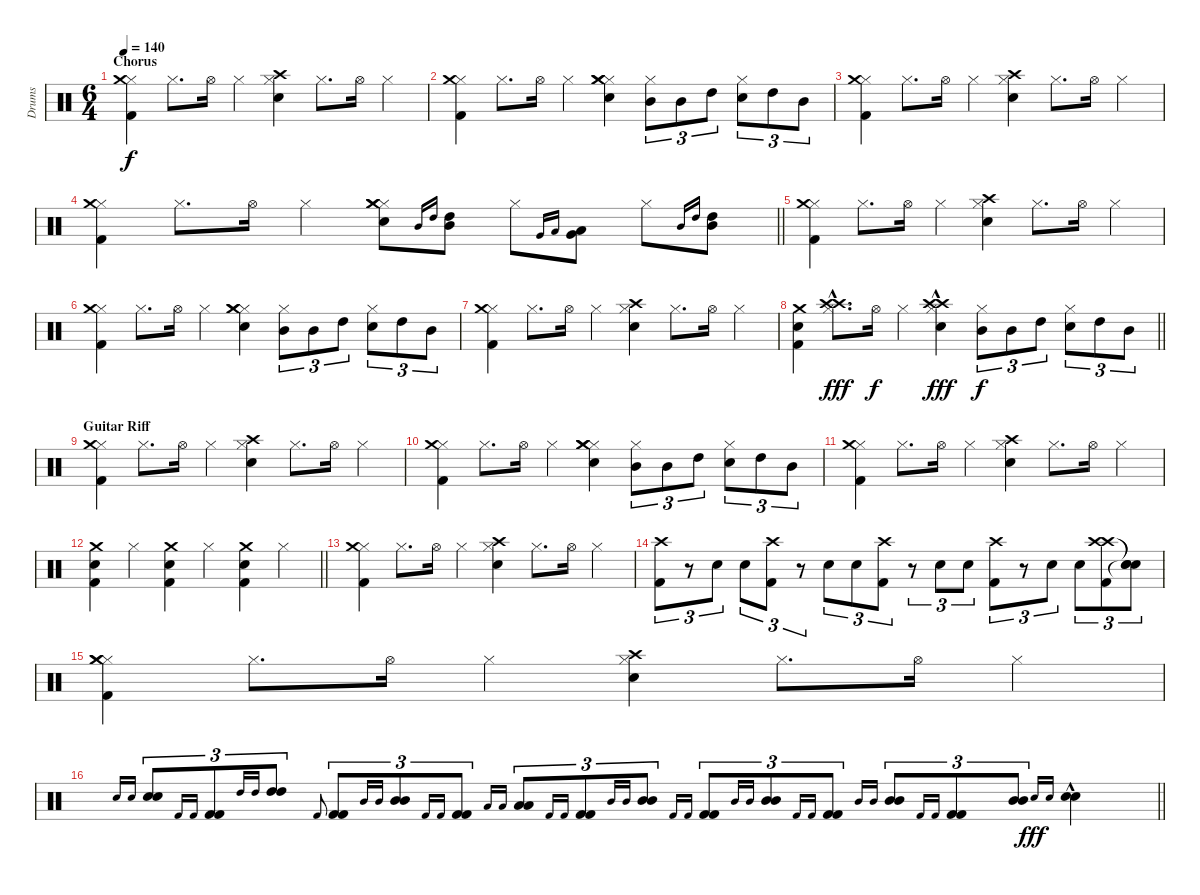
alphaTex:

\track ("Drums" "Drums") {instrument percussion}
\staff {score}
\articulation defaults
\ts (6 4)
\section ("" "Chorus")
\tempo 140
\clef neutral
\ks c
("Hi-Hat (closed)" "Crash medium (hit)" "Kick (hit) 2").4{dy f} "Hi-Hat (closed)".8{d} "Hi-Hat (open)".16 "Hi-Hat (closed)".4 ("Hi-Hat (closed)" "Crash high (hit)" "Electric Snare (hit)").4 "Hi-Hat (closed)".8{d} "Hi-Hat (open)".16 "Hi-Hat (closed)".4 |
("Hi-Hat (closed)" "Crash medium (hit)" "Kick (hit) 2").4 "Hi-Hat (closed)".8{d} "Hi-Hat (open)".16 "Hi-Hat (closed)".4 ("Hi-Hat (closed)" "Crash medium (hit)" "Crash medium (hit)" "Electric Snare (hit)").4 ("Hi-Hat (closed)" "Mid Tom (hit)").8{tu (3 2)} "Mid Tom (hit)".8{tu (3 2)} "High Tom (hit)".8{tu (3 2)} ("Hi-Hat (closed)" "Electric Snare (hit)").8{tu (3 2)} "High Tom (hit)".8{tu (3 2)} "Mid Tom (hit)".8{tu (3 2)} |
("Hi-Hat (closed)" "Crash medium (hit)" "Kick (hit) 2").4 "Hi-Hat (closed)".8{d} "Hi-Hat (open)".16 "Hi-Hat (closed)".4 ("Hi-Hat (closed)" "Crash high (hit)" "Electric Snare (hit)").4 "Hi-Hat (closed)".8{d} "Hi-Hat (open)".16 "Hi-Hat (closed)".4 |
\barLineRight lightlight
("Hi-Hat (closed)" "Crash medium (hit)" "Kick (hit) 2").4 "Hi-Hat (closed)".8{d} "Hi-Hat (open)".16 "Hi-Hat (closed)".4 ("Hi-Hat (closed)" "Crash medium (hit)" "Crash medium (hit)" "Electric Snare (hit)").8 "Mid Tom (hit)".16{gr onbeat} "High Tom (hit)".16{gr onbeat} ("Mid Tom (hit)" "High Tom (hit)").8 "Hi-Hat (closed)".8 "Very Low Tom (hit)".16{gr onbeat} "Low Tom (hit)".16{gr onbeat} ("Very Low Tom (hit)" "Low Tom (hit)").8 "Hi-Hat (closed)".8 "Mid Tom (hit)".16{gr onbeat} "High Tom (hit)".16{gr onbeat} ("Mid Tom (hit)" "High Tom (hit)").8 |
("Hi-Hat (closed)" "Crash medium (hit)" "Kick (hit) 2").4 "Hi-Hat (closed)".8{d} "Hi-Hat (open)".16 "Hi-Hat (closed)".4 ("Hi-Hat (closed)" "Crash high (hit)" "Electric Snare (hit)").4 "Hi-Hat (closed)".8{d} "Hi-Hat (open)".16 "Hi-Hat (closed)".4 |
("Hi-Hat (closed)" "Crash medium (hit)" "Kick (hit) 2").4 "Hi-Hat (closed)".8{d} "Hi-Hat (open)".16 "Hi-Hat (closed)".4 ("Hi-Hat (closed)" "Crash medium (hit)" "Crash medium (hit)" "Electric Snare (hit)").4 ("Hi-Hat (closed)" "Mid Tom (hit)").8{tu (3 2)} "Mid Tom (hit)".8{tu (3 2)} "High Tom (hit)".8{tu (3 2)} ("Hi-Hat (closed)" "Electric Snare (hit)").8{tu (3 2)} "High Tom (hit)".8{tu (3 2)} "Mid Tom (hit)".8{tu (3 2)} |
("Hi-Hat (closed)" "Crash medium (hit)" "Kick (hit) 2").4 "Hi-Hat (closed)".8{d} "Hi-Hat (open)".16 "Hi-Hat (closed)".4 ("Hi-Hat (closed)" "Crash high (hit)" "Electric Snare (hit)").4 "Hi-Hat (closed)".8{d} "Hi-Hat (open)".16 "Hi-Hat (closed)".4 |
\barLineRight lightlight
("Crash medium (hit)" "Electric Snare (hit)" "Kick (hit) 2").4 ("Hi-Hat (closed)" "Crash high (hit)" "Crash high (hit)"{hac}).8{d dy fff} "Hi-Hat (open)".16{dy f} "Hi-Hat (closed)".4 ("Hi-Hat (closed)" "Crash high (hit)"{hac} "Crash high (hit)"{hac} "Electric Snare (hit)").4{dy fff} ("Hi-Hat (closed)" "Mid Tom (hit)").8{tu (3 2) dy f} "Mid Tom (hit)".8{tu (3 2)} "High Tom (hit)".8{tu (3 2)} ("Hi-Hat (closed)" "Electric Snare (hit)").8{tu (3 2)} "High Tom (hit)".8{tu (3 2)} "Mid Tom (hit)".8{tu (3 2)} |
\section ("" "Guitar Riff")
("Hi-Hat (closed)" "Crash medium (hit)" "Kick (hit) 2").4 "Hi-Hat (closed)".8{d} "Hi-Hat (open)".16 "Hi-Hat (closed)".4 ("Hi-Hat (closed)" "Crash high (hit)" "Electric Snare (hit)").4 "Hi-Hat (closed)".8{d} "Hi-Hat (open)".16 "Hi-Hat (closed)".4 |
("Hi-Hat (closed)" "Crash medium (hit)" "Kick (hit) 2").4 "Hi-Hat (closed)".8{d} "Hi-Hat (open)".16 "Hi-Hat (closed)".4 ("Hi-Hat (closed)" "Crash medium (hit)" "Crash medium (hit)" "Electric Snare (hit)").4 ("Hi-Hat (closed)" "Mid Tom (hit)").8{tu (3 2)} "Mid Tom (hit)".8{tu (3 2)} "High Tom (hit)".8{tu (3 2)} ("Hi-Hat (closed)" "Electric Snare (hit)").8{tu (3 2)} "High Tom (hit)".8{tu (3 2)} "Mid Tom (hit)".8{tu (3 2)} |
("Hi-Hat (closed)" "Crash medium (hit)" "Kick (hit) 2").4 "Hi-Hat (closed)".8{d} "Hi-Hat (open)".16 "Hi-Hat (closed)".4 ("Hi-Hat (closed)" "Crash high (hit)" "Electric Snare (hit)").4 "Hi-Hat (closed)".8{d} "Hi-Hat (open)".16 "Hi-Hat (closed)".4 |
\barLineRight lightlight
("Crash medium (hit)" "Electric Snare (hit)" "Kick (hit) 2").4 "Hi-Hat (closed)".4 ("Crash medium (hit)" "Electric Snare (hit)" "Kick (hit) 2").4 "Hi-Hat (closed)".4 ("Crash medium (hit)" "Electric Snare (hit)" "Kick (hit) 2").4 "Hi-Hat (closed)".4 |
("Hi-Hat (closed)" "Crash medium (hit)" "Kick (hit) 2").4 "Hi-Hat (closed)".8{d} "Hi-Hat (open)".16 "Hi-Hat (closed)".4 ("Hi-Hat (closed)" "Crash high (hit)" "Electric Snare (hit)").4 "Hi-Hat (closed)".8{d} "Hi-Hat (open)".16 "Hi-Hat (closed)".4 |
("Crash high (hit)" "Kick (hit) 2").8{tu (3 2)} r.8{tu (3 2)} "Electric Snare (hit)".8{tu (3 2)} "Electric Snare (hit)".8{tu (3 2)} ("Crash high (hit)" "Kick (hit) 2").8{tu (3 2)} r.8{tu (3 2)} "Electric Snare (hit)".8{tu (3 2)} "Electric Snare (hit)".8{tu (3 2)} ("Crash high (hit)" "Kick (hit) 2").8{tu (3 2)} r.8{tu (3 2)} "Electric Snare (hit)".8{tu (3 2)} "Electric Snare (hit)".8{tu (3 2)} ("Crash high (hit)" "Kick (hit) 2").8{tu (3 2)} r.8{tu (3 2)} "Electric Snare (hit)".8{tu (3 2)} "Electric Snare (hit)".8{tu (3 2)} ("Crash high (hit)" "Crash high (hit)" "Kick (hit) 2").8{tu (3 2)} ("Snare (hit)"{t} "Snare (hit)"{t} "Snare (hit)"{t}).8{tu (3 2)} |
("Hi-Hat (closed)" "Crash medium (hit)" "Crash medium (hit)" "Kick (hit) 2").4 "Hi-Hat (closed)".8{d} "Hi-Hat (open)".16 "Hi-Hat (closed)".4 ("Hi-Hat (closed)" "Crash high (hit)" "Electric Snare (hit)").4 "Hi-Hat (closed)".8{d} "Hi-Hat (open)".16 "Hi-Hat (closed)".4 |
\barLineRight lightlight "Electric Snare (hit)".16{gr onbeat} "Electric Snare (hit)".16{gr onbeat}
("Electric Snare (hit)" "Electric Snare (hit)").8{tu (3 2)} "Kick (hit) 2".16{gr onbeat} "Kick (hit) 2".16{gr onbeat} ("Kick (hit) 2" "Kick (hit) 2").8{tu (3 2)} "High Tom (hit)".16{gr onbeat} "High Tom (hit)".16{gr onbeat} ("High Tom (hit)" "High Tom (hit)").8{tu (3 2)} "Kick (hit) 2".8{gr onbeat} ("Kick (hit) 2" "Kick (hit) 2").8{tu (3 2)} "Mid Tom (hit)".16{gr onbeat} "Mid Tom (hit)".16{gr onbeat} ("Mid Tom (hit)" "Mid Tom (hit)").8{tu (3 2)} "Kick (hit) 2".16{gr onbeat} "Kick (hit) 2".16{gr onbeat} ("Kick (hit) 2" "Kick (hit) 2").8{tu (3 2)} "Low Tom (hit)".16{gr onbeat} "Low Tom (hit)".16{gr onbeat} ("Low Tom (hit)" "Low Tom (hit)").8{tu (3 2)} "Kick (hit) 2".16{gr onbeat} "Kick (hit) 2".16{gr onbeat} ("Kick (hit) 2" "Kick (hit) 2").8{tu (3 2)} "Mid Tom (hit)".16{gr onbeat} "Mid Tom (hit)".16{gr onbeat} ("Mid Tom (hit)" "Mid Tom (hit)").8{tu (3 2)} "Kick (hit) 2".16{gr onbeat} "Kick (hit) 2".16{gr onbeat} ("Kick (hit) 2" "Kick (hit) 2").8{tu (3 2)} "Mid Tom (hit)".16{gr onbeat} "Mid Tom (hit)".16{gr onbeat} ("Mid Tom (hit)" "Mid Tom (hit)").8{tu (3 2)} "Kick (hit) 2".16{gr onbeat} "Kick (hit) 2".16{gr onbeat} ("Kick (hit) 2" "Kick (hit) 2").8{tu (3 2)} "Mid Tom (hit)".16{gr onbeat} "Mid Tom (hit)".16{gr onbeat} ("Mid Tom (hit)" "Mid Tom (hit)").8{tu (3 2)} "Kick (hit) 2".16{gr onbeat} "Kick (hit) 2".16{gr onbeat} ("Kick (hit) 2" "Kick (hit) 2").8{tu (3 2)} ("Mid Tom (hit)" "Mid Tom (hit)").8{tu (3 2)} "Electric Snare (hit)".16{gr onbeat dy fff} "Electric Snare (hit)".16{gr onbeat} ("Electric Snare (hit)"{hac} "Electric Snare (hit)"{hac}).4
